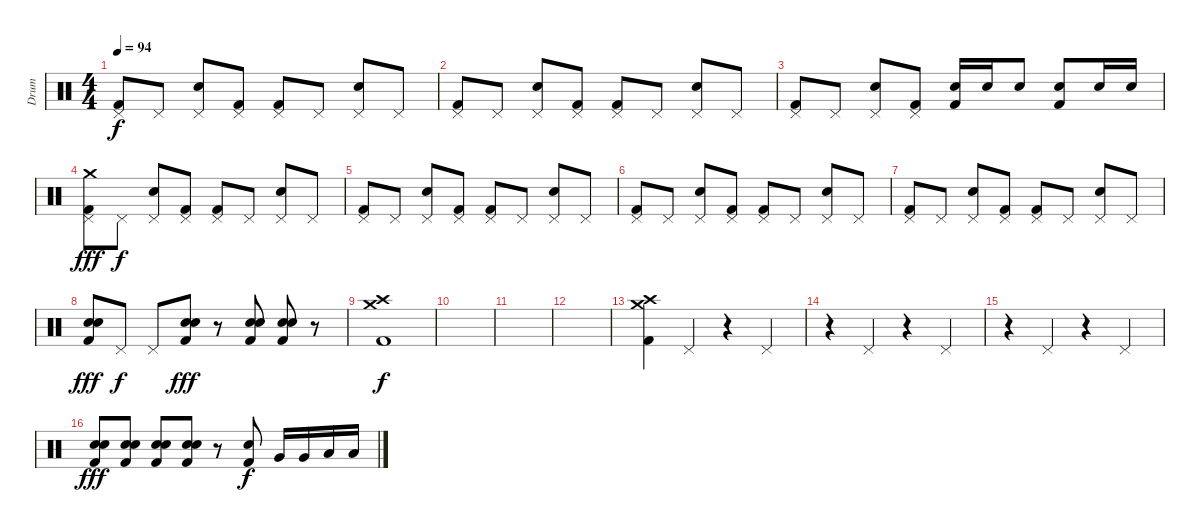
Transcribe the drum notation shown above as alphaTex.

\track ("Drum" "Drum") {instrument percussion}
\staff {score}
\articulation defaults
\ts (4 4)
\tempo 94
\clef neutral
\ks c
("Pedal Hi-Hat (hit)" "Kick (hit) 2").8{dy f} "Pedal Hi-Hat (hit)".8 ("Pedal Hi-Hat (hit)" "Snare (hit) 2").8 ("Pedal Hi-Hat (hit)" "Kick (hit) 2").8 ("Pedal Hi-Hat (hit)" "Kick (hit) 2").8 "Pedal Hi-Hat (hit)".8 ("Pedal Hi-Hat (hit)" "Snare (hit) 2").8 "Pedal Hi-Hat (hit)".8 |
("Pedal Hi-Hat (hit)" "Kick (hit) 2").8 "Pedal Hi-Hat (hit)".8 ("Pedal Hi-Hat (hit)" "Snare (hit) 2").8 ("Pedal Hi-Hat (hit)" "Kick (hit) 2").8 ("Pedal Hi-Hat (hit)" "Kick (hit) 2").8 "Pedal Hi-Hat (hit)".8 ("Pedal Hi-Hat (hit)" "Snare (hit) 2").8 "Pedal Hi-Hat (hit)".8 |
("Pedal Hi-Hat (hit)" "Kick (hit) 2").8 "Pedal Hi-Hat (hit)".8 ("Pedal Hi-Hat (hit)" "Snare (hit) 2").8 ("Pedal Hi-Hat (hit)" "Kick (hit) 2").8 ("Snare (hit) 2" "Kick (hit) 2").16 "Snare (hit) 2".16 "Snare (hit) 2".8 ("Snare (hit) 2" "Kick (hit) 2").8 "Snare (hit) 2".16 "Snare (hit) 2".16 |
("Crash medium (hit)" "Pedal Hi-Hat (hit)" "Kick (hit) 2").8{dy fff} "Pedal Hi-Hat (hit)".8{dy f} ("Pedal Hi-Hat (hit)" "Snare (hit) 2").8 ("Pedal Hi-Hat (hit)" "Kick (hit) 2").8 ("Pedal Hi-Hat (hit)" "Kick (hit) 2").8 "Pedal Hi-Hat (hit)".8 ("Pedal Hi-Hat (hit)" "Snare (hit) 2").8 "Pedal Hi-Hat (hit)".8 |
("Pedal Hi-Hat (hit)" "Kick (hit) 2").8 "Pedal Hi-Hat (hit)".8 ("Pedal Hi-Hat (hit)" "Snare (hit) 2").8 ("Pedal Hi-Hat (hit)" "Kick (hit) 2").8 ("Pedal Hi-Hat (hit)" "Kick (hit) 2").8 "Pedal Hi-Hat (hit)".8 ("Pedal Hi-Hat (hit)" "Snare (hit) 2").8 "Pedal Hi-Hat (hit)".8 |
("Pedal Hi-Hat (hit)" "Kick (hit) 2").8 "Pedal Hi-Hat (hit)".8 ("Pedal Hi-Hat (hit)" "Snare (hit) 2").8 ("Pedal Hi-Hat (hit)" "Kick (hit) 2").8 ("Pedal Hi-Hat (hit)" "Kick (hit) 2").8 "Pedal Hi-Hat (hit)".8 ("Pedal Hi-Hat (hit)" "Snare (hit) 2").8 "Pedal Hi-Hat (hit)".8 |
("Pedal Hi-Hat (hit)" "Kick (hit) 2").8 "Pedal Hi-Hat (hit)".8 ("Pedal Hi-Hat (hit)" "Snare (hit) 2").8 ("Pedal Hi-Hat (hit)" "Kick (hit) 2").8 ("Pedal Hi-Hat (hit)" "Kick (hit) 2").8 "Pedal Hi-Hat (hit)".8 ("Pedal Hi-Hat (hit)" "Snare (hit) 2").8 "Pedal Hi-Hat (hit)".8 |
("Snare (hit) 2" "Snare (hit) 2" "Kick (hit) 2").8{dy fff} "Pedal Hi-Hat (hit)".8{dy f} "Pedal Hi-Hat (hit)".8 ("Snare (hit) 2" "Snare (hit) 2" "Kick (hit) 2").8{dy fff} r.8 ("Snare (hit) 2" "Snare (hit) 2" "Kick (hit) 2").8 ("Snare (hit) 2" "Snare (hit) 2" "Kick (hit) 2").8 r.8 |
("Crash medium (hit)" "Crash high (hit)" "Kick (hit) 2").1{dy f} |
|
|
|
("Crash medium (hit)" "Crash high (hit)" "Kick (hit) 2").4 "Pedal Hi-Hat (hit)".4 r.4 "Pedal Hi-Hat (hit)".4 |
r.4 "Pedal Hi-Hat (hit)".4 r.4 "Pedal Hi-Hat (hit)".4 |
r.4 "Pedal Hi-Hat (hit)".4 r.4 "Pedal Hi-Hat (hit)".4 |
("Snare (hit) 2" "Snare (hit) 2" "Kick (hit) 2").8{dy fff} ("Snare (hit) 2" "Snare (hit) 2" "Kick (hit) 2").8 ("Snare (hit) 2" "Snare (hit) 2" "Kick (hit) 2").8 ("Snare (hit) 2" "Snare (hit) 2" "Kick (hit) 2").8 r.8 ("Snare (hit) 2" "Kick (hit) 2").8{dy f} "Very Low Tom (hit)".16 "Very Low Tom (hit)".16 "Low Floor Tom (hit)".16 "Low Floor Tom (hit)".16
